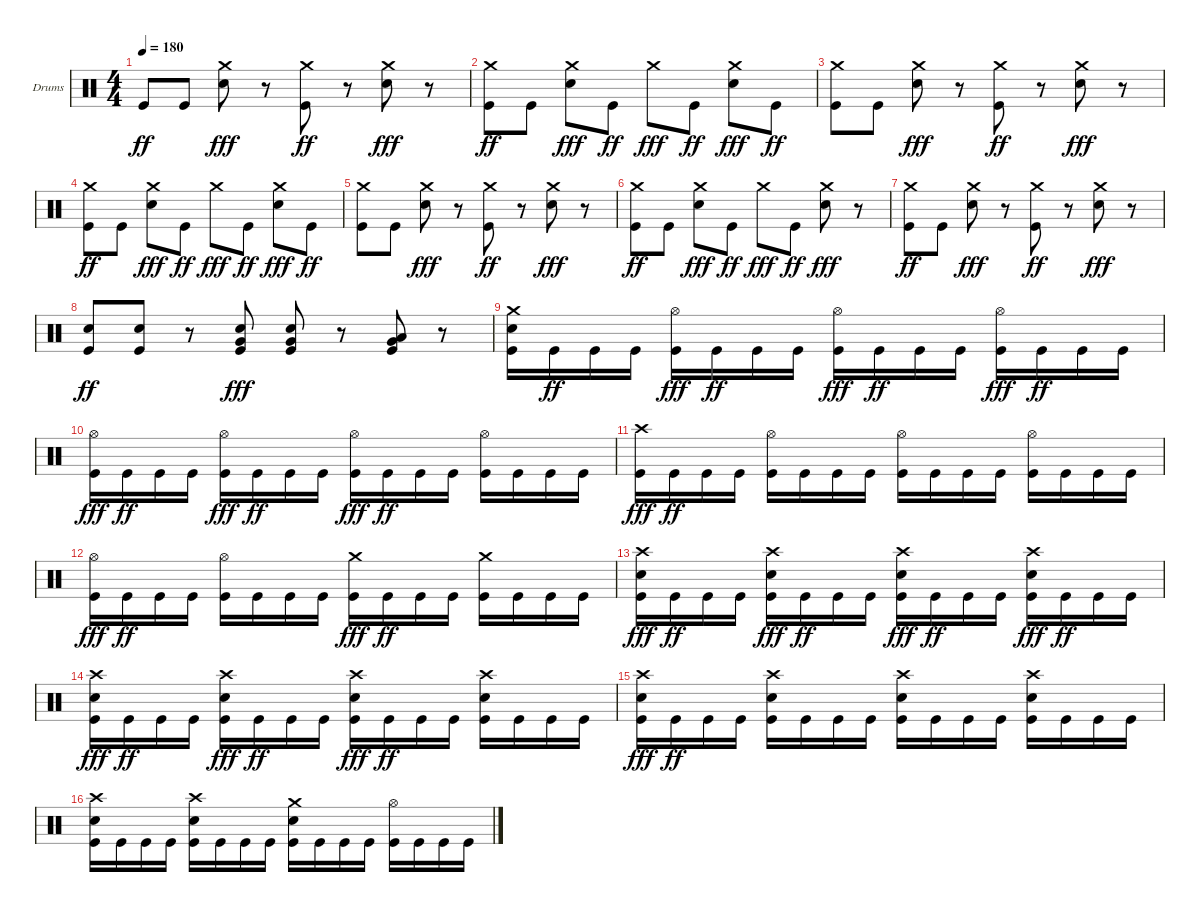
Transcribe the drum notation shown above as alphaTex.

\bracketExtendMode groupsimilarinstruments
\firstSystemTrackNameOrientation horizontal
\otherSystemsTrackNameOrientation horizontal
\track ("Drumkit" "Drums") {instrument percussion}
\staff {score}
\articulation defaults
\ts (4 4)
\tempo 180
\clef neutral
\ks c "Kick (hit)".8{dy ff} "Kick (hit)".8
("Snare (hit) 2" "Crash medium (hit)").8{dy fff} r.8 ("Kick (hit)" "Crash medium (hit)").8{dy ff} r.8 ("Snare (hit) 2" "Crash medium (hit)").8{dy fff} r.8 |
("Kick (hit)" "Crash medium (hit)").8{dy ff} "Kick (hit)".8 ("Snare (hit) 2" "Crash medium (hit)").8{dy fff} "Kick (hit)".8{dy ff} "Crash medium (hit)".8{dy fff} "Kick (hit)".8{dy ff} ("Snare (hit) 2" "Crash medium (hit)").8{dy fff} "Kick (hit)".8{dy ff} |
("Kick (hit)" "Crash medium (hit)").8 "Kick (hit)".8 ("Snare (hit) 2" "Crash medium (hit)").8{dy fff} r.8 ("Kick (hit)" "Crash medium (hit)").8{dy ff} r.8 ("Snare (hit) 2" "Crash medium (hit)").8{dy fff} r.8 |
("Kick (hit)" "Crash medium (hit)").8{dy ff} "Kick (hit)".8 ("Snare (hit) 2" "Crash medium (hit)").8{dy fff} "Kick (hit)".8{dy ff} "Crash medium (hit)".8{dy fff} "Kick (hit)".8{dy ff} ("Snare (hit) 2" "Crash medium (hit)").8{dy fff} "Kick (hit)".8{dy ff} |
("Kick (hit)" "Crash medium (hit)").8 "Kick (hit)".8 ("Snare (hit) 2" "Crash medium (hit)").8{dy fff} r.8 ("Kick (hit)" "Crash medium (hit)").8{dy ff} r.8 ("Snare (hit) 2" "Crash medium (hit)").8{dy fff} r.8 |
("Kick (hit)" "Crash medium (hit)").8{dy ff} "Kick (hit)".8 ("Snare (hit) 2" "Crash medium (hit)").8{dy fff} "Kick (hit)".8{dy ff} "Crash medium (hit)".8{dy fff} "Kick (hit)".8{dy ff} ("Snare (hit) 2" "Crash medium (hit)").8{dy fff} r.8 |
("Kick (hit)" "Crash medium (hit)").8{dy ff} "Kick (hit)".8 ("Snare (hit) 2" "Crash medium (hit)").8{dy fff} r.8 ("Kick (hit)" "Crash medium (hit)").8{dy ff} r.8 ("Snare (hit) 2" "Crash medium (hit)").8{dy fff} r.8 |
("Kick (hit)" "Snare (hit) 2").8{dy ff} ("Kick (hit)" "Snare (hit) 2").8 r.8 ("Snare (hit) 2" "Very Low Tom (hit)" "Kick (hit)").8{dy fff} ("Snare (hit) 2" "Very Low Tom (hit)" "Kick (hit)").8 r.8 ("Low Tom (hit)" "Very Low Tom (hit)" "Kick (hit)").8 r.8 |
("Crash medium (hit)" "Kick (hit)" "Snare (hit) 2").16 "Kick (hit)".16{dy ff} "Kick (hit)".16 "Kick (hit)".16 ("Hi-Hat (open)" "Kick (hit)").16{dy fff} "Kick (hit)".16{dy ff} "Kick (hit)".16 "Kick (hit)".16 ("Hi-Hat (open)" "Kick (hit)").16{dy fff} "Kick (hit)".16{dy ff} "Kick (hit)".16 "Kick (hit)".16 ("Hi-Hat (open)" "Kick (hit)").16{dy fff} "Kick (hit)".16{dy ff} "Kick (hit)".16 "Kick (hit)".16 |
("Hi-Hat (open)" "Kick (hit)").16{dy fff} "Kick (hit)".16{dy ff} "Kick (hit)".16 "Kick (hit)".16 ("Hi-Hat (open)" "Kick (hit)").16{dy fff} "Kick (hit)".16{dy ff} "Kick (hit)".16 "Kick (hit)".16 ("Hi-Hat (open)" "Kick (hit)").16{dy fff} "Kick (hit)".16{dy ff} "Kick (hit)".16 "Kick (hit)".16 ("Kick (hit)" "Hi-Hat (open)").16 "Kick (hit)".16 "Kick (hit)".16 "Kick (hit)".16 |
("Crash high (hit)" "Kick (hit)").16{dy fff} "Kick (hit)".16{dy ff} "Kick (hit)".16 "Kick (hit)".16 ("Kick (hit)" "Hi-Hat (open)").16 "Kick (hit)".16 "Kick (hit)".16 "Kick (hit)".16 ("Kick (hit)" "Hi-Hat (open)").16 "Kick (hit)".16 "Kick (hit)".16 "Kick (hit)".16 ("Kick (hit)" "Hi-Hat (open)").16 "Kick (hit)".16 "Kick (hit)".16 "Kick (hit)".16 |
("Hi-Hat (open)" "Kick (hit)").16{dy fff} "Kick (hit)".16{dy ff} "Kick (hit)".16 "Kick (hit)".16 ("Kick (hit)" "Hi-Hat (open)").16 "Kick (hit)".16 "Kick (hit)".16 "Kick (hit)".16 ("Crash medium (hit)" "Kick (hit)").16{dy fff} "Kick (hit)".16{dy ff} "Kick (hit)".16 "Kick (hit)".16 ("Kick (hit)" "Crash medium (hit)").16 "Kick (hit)".16 "Kick (hit)".16 "Kick (hit)".16 |
("Crash high (hit)" "Kick (hit)" "Snare (hit) 2").16{dy fff} "Kick (hit)".16{dy ff} "Kick (hit)".16 "Kick (hit)".16 ("Crash high (hit)" "Kick (hit)" "Snare (hit) 2").16{dy fff} "Kick (hit)".16{dy ff} "Kick (hit)".16 "Kick (hit)".16 ("Crash high (hit)" "Kick (hit)" "Snare (hit) 2").16{dy fff} "Kick (hit)".16{dy ff} "Kick (hit)".16 "Kick (hit)".16 ("Crash high (hit)" "Kick (hit)" "Snare (hit) 2").16{dy fff} "Kick (hit)".16{dy ff} "Kick (hit)".16 "Kick (hit)".16 |
("Crash high (hit)" "Kick (hit)" "Snare (hit) 2").16{dy fff} "Kick (hit)".16{dy ff} "Kick (hit)".16 "Kick (hit)".16 ("Crash high (hit)" "Kick (hit)" "Snare (hit) 2").16{dy fff} "Kick (hit)".16{dy ff} "Kick (hit)".16 "Kick (hit)".16 ("Snare (hit) 2" "Kick (hit)" "Crash high (hit)").16{dy fff} "Kick (hit)".16{dy ff} "Kick (hit)".16 "Kick (hit)".16 ("Kick (hit)" "Snare (hit) 2" "Crash high (hit)").16 "Kick (hit)".16 "Kick (hit)".16 "Kick (hit)".16 |
("Crash high (hit)" "Snare (hit) 2" "Kick (hit)").16{dy fff} "Kick (hit)".16{dy ff} "Kick (hit)".16 "Kick (hit)".16 ("Kick (hit)" "Snare (hit) 2" "Crash high (hit)").16 "Kick (hit)".16 "Kick (hit)".16 "Kick (hit)".16 ("Kick (hit)" "Snare (hit) 2" "Crash high (hit)").16 "Kick (hit)".16 "Kick (hit)".16 "Kick (hit)".16 ("Kick (hit)" "Snare (hit) 2" "Crash high (hit)").16 "Kick (hit)".16 "Kick (hit)".16 "Kick (hit)".16 |
("Kick (hit)" "Snare (hit) 2" "Crash high (hit)").16 "Kick (hit)".16 "Kick (hit)".16 "Kick (hit)".16 ("Kick (hit)" "Snare (hit) 2" "Crash high (hit)").16 "Kick (hit)".16 "Kick (hit)".16 "Kick (hit)".16 ("Kick (hit)" "Snare (hit) 2" "Crash medium (hit)").16 "Kick (hit)".16 "Kick (hit)".16 "Kick (hit)".16 ("Kick (hit)" "Hi-Hat (open)").16 "Kick (hit)".16 "Kick (hit)".16 "Kick (hit)".16
